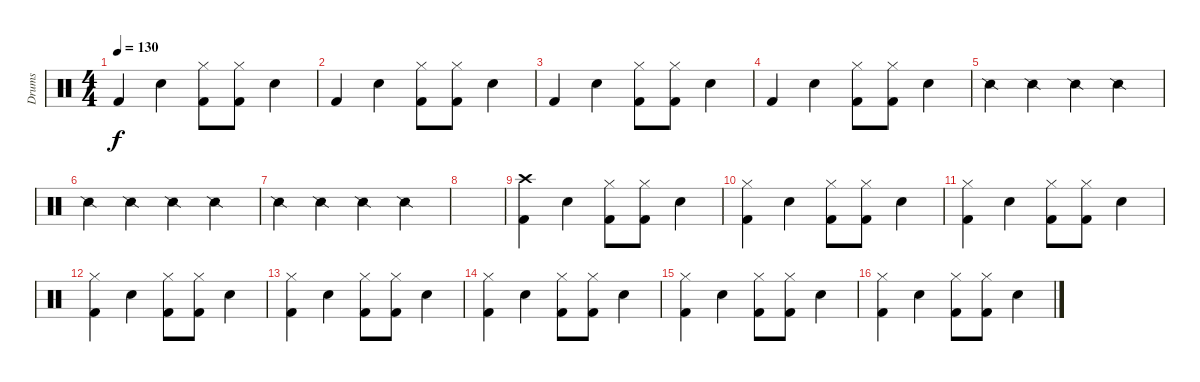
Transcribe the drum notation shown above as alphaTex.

\track ("Drums" "Drums") {instrument percussion}
\staff {score}
\articulation defaults
\ts (4 4)
\tempo 130
\clef neutral
\ks c "Kick (hit) 2".4{dy f} "Electric Snare (hit)".4
("Kick (hit) 2" "Hi-Hat (closed)").8 ("Kick (hit) 2" "Hi-Hat (closed)").8 "Electric Snare (hit)".4 |
"Kick (hit) 2".4 "Electric Snare (hit)".4 ("Kick (hit) 2" "Hi-Hat (closed)").8 ("Kick (hit) 2" "Hi-Hat (closed)").8 "Electric Snare (hit)".4 |
"Kick (hit) 2".4 "Electric Snare (hit)".4 ("Kick (hit) 2" "Hi-Hat (closed)").8 ("Kick (hit) 2" "Hi-Hat (closed)").8 "Electric Snare (hit)".4 |
"Kick (hit) 2".4 "Electric Snare (hit)".4 ("Kick (hit) 2" "Hi-Hat (closed)").8 ("Kick (hit) 2" "Hi-Hat (closed)").8 "Electric Snare (hit)".4 |
"Snare (side stick) 2".4 "Snare (side stick) 2".4 "Snare (side stick) 2".4 "Snare (side stick) 2".4 |
"Snare (side stick) 2".4 "Snare (side stick) 2".4 "Snare (side stick) 2".4 "Snare (side stick) 2".4 |
"Snare (side stick) 2".4 "Snare (side stick) 2".4 "Snare (side stick) 2".4 "Snare (side stick) 2".4 |
|
("Crash high (hit)" "Kick (hit) 2").4 "Electric Snare (hit)".4 ("Kick (hit) 2" "Hi-Hat (closed)").8 ("Kick (hit) 2" "Hi-Hat (closed)").8 "Electric Snare (hit)".4 |
("Hi-Hat (closed)" "Kick (hit) 2").4 "Electric Snare (hit)".4 ("Kick (hit) 2" "Hi-Hat (closed)").8 ("Kick (hit) 2" "Hi-Hat (closed)").8 "Electric Snare (hit)".4 |
("Hi-Hat (closed)" "Kick (hit) 2").4 "Electric Snare (hit)".4 ("Kick (hit) 2" "Hi-Hat (closed)").8 ("Kick (hit) 2" "Hi-Hat (closed)").8 "Electric Snare (hit)".4 |
("Hi-Hat (closed)" "Kick (hit) 2").4 "Electric Snare (hit)".4 ("Kick (hit) 2" "Hi-Hat (closed)").8 ("Kick (hit) 2" "Hi-Hat (closed)").8 "Electric Snare (hit)".4 |
("Hi-Hat (closed)" "Kick (hit) 2").4 "Electric Snare (hit)".4 ("Kick (hit) 2" "Hi-Hat (closed)").8 ("Kick (hit) 2" "Hi-Hat (closed)").8 "Electric Snare (hit)".4 |
("Hi-Hat (closed)" "Kick (hit) 2").4 "Electric Snare (hit)".4 ("Kick (hit) 2" "Hi-Hat (closed)").8 ("Kick (hit) 2" "Hi-Hat (closed)").8 "Electric Snare (hit)".4 |
("Hi-Hat (closed)" "Kick (hit) 2").4 "Electric Snare (hit)".4 ("Kick (hit) 2" "Hi-Hat (closed)").8 ("Kick (hit) 2" "Hi-Hat (closed)").8 "Electric Snare (hit)".4 |
("Hi-Hat (closed)" "Kick (hit) 2").4 "Electric Snare (hit)".4 ("Kick (hit) 2" "Hi-Hat (closed)").8 ("Kick (hit) 2" "Hi-Hat (closed)").8 "Electric Snare (hit)".4
